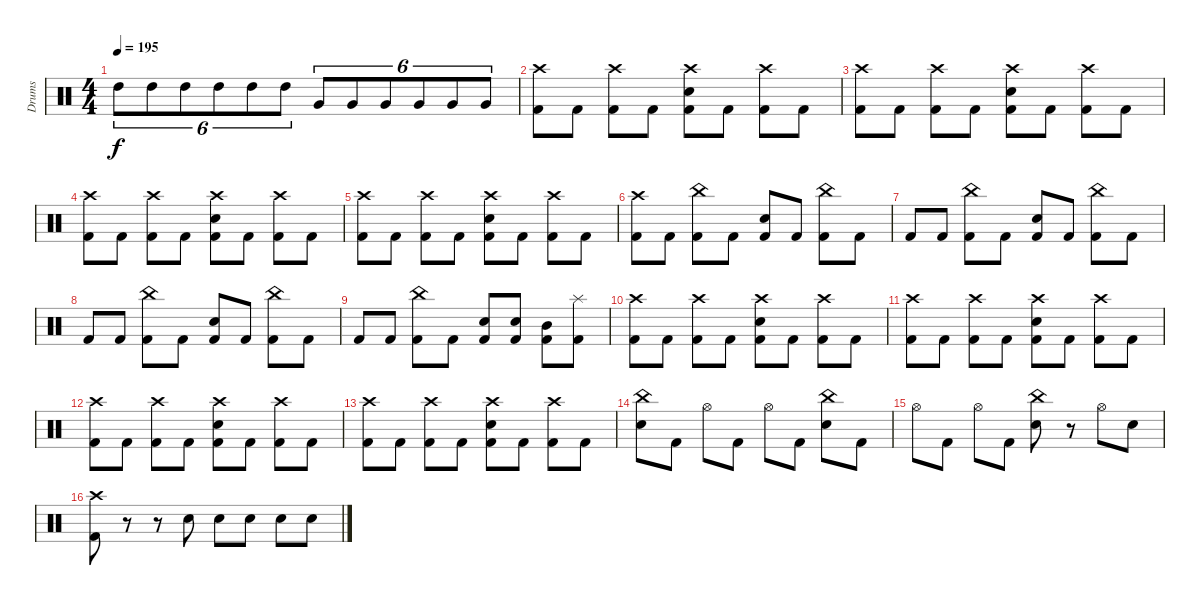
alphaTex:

\track ("Drums" "Drums") {instrument percussion}
\staff {score}
\articulation defaults
\ts (4 4)
\tempo 195
\clef neutral
\ks c "High Tom (hit)".8{tu (6 4) dy f} "High Tom (hit)".8{tu (6 4)} "High Tom (hit)".8{tu (6 4)} "High Tom (hit)".8{tu (6 4)} "High Tom (hit)".8{tu (6 4)} "High Tom (hit)".8{tu (6 4)} "Very Low Tom (hit)".8{tu (6 4)} "Very Low Tom (hit)".8{tu (6 4)} "Very Low Tom (hit)".8{tu (6 4)} "Very Low Tom (hit)".8{tu (6 4)} "Very Low Tom (hit)".8{tu (6 4)} "Very Low Tom (hit)".8{tu (6 4)}
|
("Crash high (hit)" "Kick (hit) 2").8 "Kick (hit) 2".8 ("Crash high (hit)" "Kick (hit) 2").8 "Kick (hit) 2".8 ("Crash high (hit)" "Snare (hit) 2" "Kick (hit) 2").8 "Kick (hit) 2".8 ("Crash high (hit)" "Kick (hit) 2").8 "Kick (hit) 2".8 |
("Crash high (hit)" "Kick (hit) 2").8 "Kick (hit) 2".8 ("Crash high (hit)" "Kick (hit) 2").8 "Kick (hit) 2".8 ("Crash high (hit)" "Snare (hit) 2" "Kick (hit) 2").8 "Kick (hit) 2".8 ("Crash high (hit)" "Kick (hit) 2").8 "Kick (hit) 2".8 |
("Crash high (hit)" "Kick (hit) 2").8 "Kick (hit) 2".8 ("Crash high (hit)" "Kick (hit) 2").8 "Kick (hit) 2".8 ("Crash high (hit)" "Snare (hit) 2" "Kick (hit) 2").8 "Kick (hit) 2".8 ("Crash high (hit)" "Kick (hit) 2").8 "Kick (hit) 2".8 |
("Crash high (hit)" "Kick (hit) 2").8 "Kick (hit) 2".8 ("Crash high (hit)" "Kick (hit) 2").8 "Kick (hit) 2".8 ("Crash high (hit)" "Snare (hit) 2" "Kick (hit) 2").8 "Kick (hit) 2".8 ("Crash high (hit)" "Kick (hit) 2").8 "Kick (hit) 2".8 |
("Crash high (hit)" "Kick (hit) 2").8 "Kick (hit) 2".8 ("China (hit)" "Kick (hit) 2").8 "Kick (hit) 2".8 ("Snare (hit) 2" "Kick (hit) 2").8 "Kick (hit) 2".8 ("China (hit)" "Kick (hit) 2").8 "Kick (hit) 2".8 |
"Kick (hit) 2".8 "Kick (hit) 2".8 ("China (hit)" "Kick (hit) 2").8 "Kick (hit) 2".8 ("Snare (hit) 2" "Kick (hit) 2").8 "Kick (hit) 2".8 ("China (hit)" "Kick (hit) 2").8 "Kick (hit) 2".8 |
"Kick (hit) 2".8 "Kick (hit) 2".8 ("China (hit)" "Kick (hit) 2").8 "Kick (hit) 2".8 ("Snare (hit) 2" "Kick (hit) 2").8 "Kick (hit) 2".8 ("China (hit)" "Kick (hit) 2").8 "Kick (hit) 2".8 |
"Kick (hit) 2".8 "Kick (hit) 2".8 ("China (hit)" "Kick (hit) 2").8 "Kick (hit) 2".8 ("Snare (hit) 2" "Kick (hit) 2").8 ("Snare (hit) 2" "Kick (hit) 2").8 ("Mid Tom (hit)" "Kick (hit) 2").8 ("Splash (hit)" "Kick (hit) 2").8 |
("Crash high (hit)" "Kick (hit) 2").8 "Kick (hit) 2".8 ("Crash high (hit)" "Kick (hit) 2").8 "Kick (hit) 2".8 ("Crash high (hit)" "Snare (hit) 2" "Kick (hit) 2").8 "Kick (hit) 2".8 ("Crash high (hit)" "Kick (hit) 2").8 "Kick (hit) 2".8 |
("Crash high (hit)" "Kick (hit) 2").8 "Kick (hit) 2".8 ("Crash high (hit)" "Kick (hit) 2").8 "Kick (hit) 2".8 ("Crash high (hit)" "Snare (hit) 2" "Kick (hit) 2").8 "Kick (hit) 2".8 ("Crash high (hit)" "Kick (hit) 2").8 "Kick (hit) 2".8 |
("Crash high (hit)" "Kick (hit) 2").8 "Kick (hit) 2".8 ("Crash high (hit)" "Kick (hit) 2").8 "Kick (hit) 2".8 ("Crash high (hit)" "Snare (hit) 2" "Kick (hit) 2").8 "Kick (hit) 2".8 ("Crash high (hit)" "Kick (hit) 2").8 "Kick (hit) 2".8 |
("Crash high (hit)" "Kick (hit) 2").8 "Kick (hit) 2".8 ("Crash high (hit)" "Kick (hit) 2").8 "Kick (hit) 2".8 ("Crash high (hit)" "Snare (hit) 2" "Kick (hit) 2").8 "Kick (hit) 2".8 ("Crash high (hit)" "Kick (hit) 2").8 "Kick (hit) 2".8 |
("China (hit)" "Snare (hit) 2").8 "Kick (hit) 2".8 "Hi-Hat (open)".8 "Kick (hit) 2".8 "Hi-Hat (open)".8 "Kick (hit) 2".8 ("China (hit)" "Snare (hit) 2").8 "Kick (hit) 2".8 |
"Hi-Hat (open)".8 "Kick (hit) 2".8 "Hi-Hat (open)".8 "Kick (hit) 2".8 ("China (hit)" "Snare (hit) 2").8 r.8 "Hi-Hat (open)".8 "Snare (hit) 2".8 |
("Crash high (hit)" "Kick (hit) 2").8 r.8 r.8 "Snare (hit) 2".8 "Snare (hit) 2".8 "Snare (hit) 2".8 "Snare (hit) 2".8 "Snare (hit) 2".8
